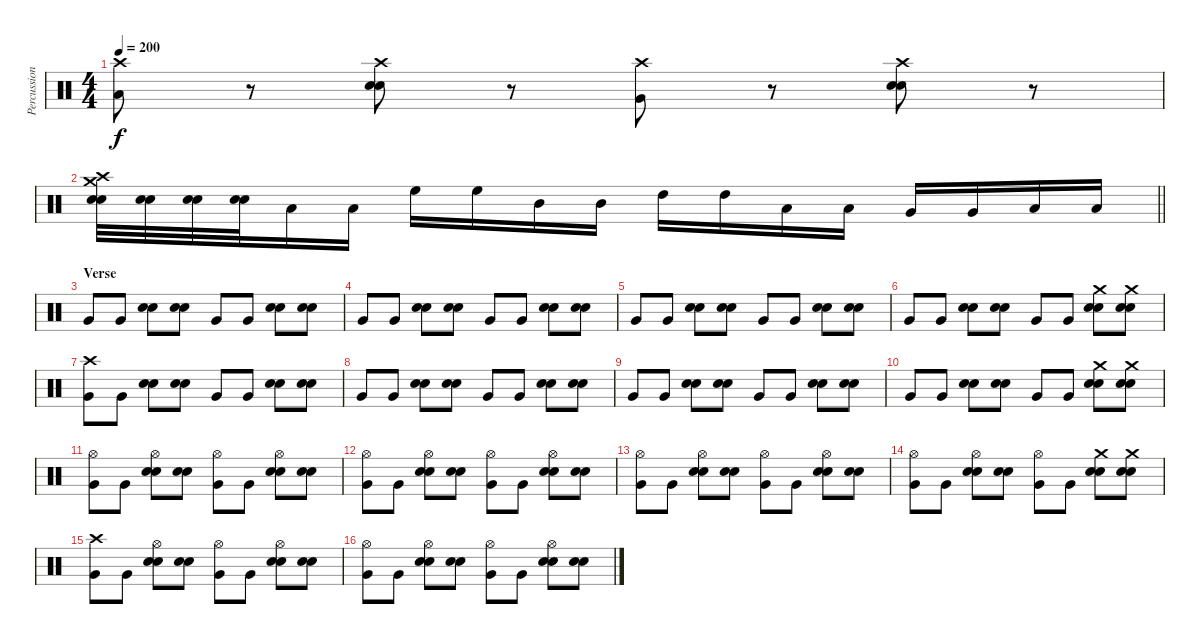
\track ("Percussion" "Percussion") {instrument percussion}
\staff {score}
\articulation defaults
\ts (4 4)
\tempo 200
\clef neutral
\ks c
("Crash high (hit)" "Low Floor Tom (hit)").8{dy f} r.8 ("Crash high (hit)" "Snare (hit) 2" "Electric Snare (hit)").8 r.8 ("Crash high (hit)" "Very Low Tom (hit)").8 r.8 ("Crash high (hit)" "Snare (hit) 2" "Electric Snare (hit)").8 r.8 |
\barLineRight lightlight
("Crash high (hit)" "Crash medium (hit)" "Snare (hit) 2" "Electric Snare (hit)").32 ("Snare (hit) 2" "Electric Snare (hit)").32 ("Snare (hit) 2" "Electric Snare (hit)").32 ("Snare (hit) 2" "Electric Snare (hit)").32 "Low Tom (hit)".16 "Low Tom (hit)".16 "High Floor Tom (hit)".16 "High Floor Tom (hit)".16 "Mid Tom (hit)".16 "Mid Tom (hit)".16 "High Tom (hit)".16 "High Tom (hit)".16 "Low Tom (hit)".16 "Low Tom (hit)".16 "Very Low Tom (hit)".16 "Very Low Tom (hit)".16 "Low Floor Tom (hit)".16 "Low Floor Tom (hit)".16 |
\section ("" "Verse")
"Very Low Tom (hit)".8 "Very Low Tom (hit)".8 ("Snare (hit) 2" "Electric Snare (hit)").8 ("Snare (hit) 2" "Electric Snare (hit)").8 "Very Low Tom (hit)".8 "Very Low Tom (hit)".8 ("Snare (hit) 2" "Electric Snare (hit)").8 ("Snare (hit) 2" "Electric Snare (hit)").8 |
"Very Low Tom (hit)".8 "Very Low Tom (hit)".8 ("Snare (hit) 2" "Electric Snare (hit)").8 ("Snare (hit) 2" "Electric Snare (hit)").8 "Very Low Tom (hit)".8 "Very Low Tom (hit)".8 ("Snare (hit) 2" "Electric Snare (hit)").8 ("Snare (hit) 2" "Electric Snare (hit)").8 |
"Very Low Tom (hit)".8 "Very Low Tom (hit)".8 ("Snare (hit) 2" "Electric Snare (hit)").8 ("Snare (hit) 2" "Electric Snare (hit)").8 "Very Low Tom (hit)".8 "Very Low Tom (hit)".8 ("Snare (hit) 2" "Electric Snare (hit)").8 ("Snare (hit) 2" "Electric Snare (hit)").8 |
"Very Low Tom (hit)".8 "Very Low Tom (hit)".8 ("Snare (hit) 2" "Electric Snare (hit)").8 ("Snare (hit) 2" "Electric Snare (hit)").8 "Very Low Tom (hit)".8 "Very Low Tom (hit)".8 ("Crash medium (hit)" "Snare (hit) 2" "Electric Snare (hit)").8 ("Crash medium (hit)" "Snare (hit) 2" "Electric Snare (hit)").8 |
("Crash high (hit)" "Very Low Tom (hit)").8 "Very Low Tom (hit)".8 ("Snare (hit) 2" "Electric Snare (hit)").8 ("Snare (hit) 2" "Electric Snare (hit)").8 "Very Low Tom (hit)".8 "Very Low Tom (hit)".8 ("Snare (hit) 2" "Electric Snare (hit)").8 ("Snare (hit) 2" "Electric Snare (hit)").8 |
"Very Low Tom (hit)".8 "Very Low Tom (hit)".8 ("Snare (hit) 2" "Electric Snare (hit)").8 ("Snare (hit) 2" "Electric Snare (hit)").8 "Very Low Tom (hit)".8 "Very Low Tom (hit)".8 ("Snare (hit) 2" "Electric Snare (hit)").8 ("Snare (hit) 2" "Electric Snare (hit)").8 |
"Very Low Tom (hit)".8 "Very Low Tom (hit)".8 ("Snare (hit) 2" "Electric Snare (hit)").8 ("Snare (hit) 2" "Electric Snare (hit)").8 "Very Low Tom (hit)".8 "Very Low Tom (hit)".8 ("Snare (hit) 2" "Electric Snare (hit)").8 ("Snare (hit) 2" "Electric Snare (hit)").8 |
"Very Low Tom (hit)".8 "Very Low Tom (hit)".8 ("Snare (hit) 2" "Electric Snare (hit)").8 ("Snare (hit) 2" "Electric Snare (hit)").8 "Very Low Tom (hit)".8 "Very Low Tom (hit)".8 ("Crash medium (hit)" "Snare (hit) 2" "Electric Snare (hit)").8 ("Crash medium (hit)" "Snare (hit) 2" "Electric Snare (hit)").8 |
("Hi-Hat (open)" "Very Low Tom (hit)").8 "Very Low Tom (hit)".8 ("Hi-Hat (open)" "Snare (hit) 2" "Electric Snare (hit)").8 ("Snare (hit) 2" "Electric Snare (hit)").8 ("Hi-Hat (open)" "Very Low Tom (hit)").8 "Very Low Tom (hit)".8 ("Hi-Hat (open)" "Snare (hit) 2" "Electric Snare (hit)").8 ("Snare (hit) 2" "Electric Snare (hit)").8 |
("Hi-Hat (open)" "Very Low Tom (hit)").8 "Very Low Tom (hit)".8 ("Hi-Hat (open)" "Snare (hit) 2" "Electric Snare (hit)").8 ("Snare (hit) 2" "Electric Snare (hit)").8 ("Hi-Hat (open)" "Very Low Tom (hit)").8 "Very Low Tom (hit)".8 ("Hi-Hat (open)" "Snare (hit) 2" "Electric Snare (hit)").8 ("Snare (hit) 2" "Electric Snare (hit)").8 |
("Hi-Hat (open)" "Very Low Tom (hit)").8 "Very Low Tom (hit)".8 ("Hi-Hat (open)" "Snare (hit) 2" "Electric Snare (hit)").8 ("Snare (hit) 2" "Electric Snare (hit)").8 ("Hi-Hat (open)" "Very Low Tom (hit)").8 "Very Low Tom (hit)".8 ("Hi-Hat (open)" "Snare (hit) 2" "Electric Snare (hit)").8 ("Snare (hit) 2" "Electric Snare (hit)").8 |
("Hi-Hat (open)" "Very Low Tom (hit)").8 "Very Low Tom (hit)".8 ("Hi-Hat (open)" "Snare (hit) 2" "Electric Snare (hit)").8 ("Snare (hit) 2" "Electric Snare (hit)").8 ("Hi-Hat (open)" "Very Low Tom (hit)").8 "Very Low Tom (hit)".8 ("Crash medium (hit)" "Snare (hit) 2" "Electric Snare (hit)").8 ("Crash medium (hit)" "Snare (hit) 2" "Electric Snare (hit)").8 |
("Crash high (hit)" "Very Low Tom (hit)").8 "Very Low Tom (hit)".8 ("Hi-Hat (open)" "Snare (hit) 2" "Electric Snare (hit)").8 ("Snare (hit) 2" "Electric Snare (hit)").8 ("Hi-Hat (open)" "Very Low Tom (hit)").8 "Very Low Tom (hit)".8 ("Hi-Hat (open)" "Snare (hit) 2" "Electric Snare (hit)").8 ("Snare (hit) 2" "Electric Snare (hit)").8 |
("Hi-Hat (open)" "Very Low Tom (hit)").8 "Very Low Tom (hit)".8 ("Hi-Hat (open)" "Snare (hit) 2" "Electric Snare (hit)").8 ("Snare (hit) 2" "Electric Snare (hit)").8 ("Hi-Hat (open)" "Very Low Tom (hit)").8 "Very Low Tom (hit)".8 ("Hi-Hat (open)" "Snare (hit) 2" "Electric Snare (hit)").8 ("Snare (hit) 2" "Electric Snare (hit)").8
